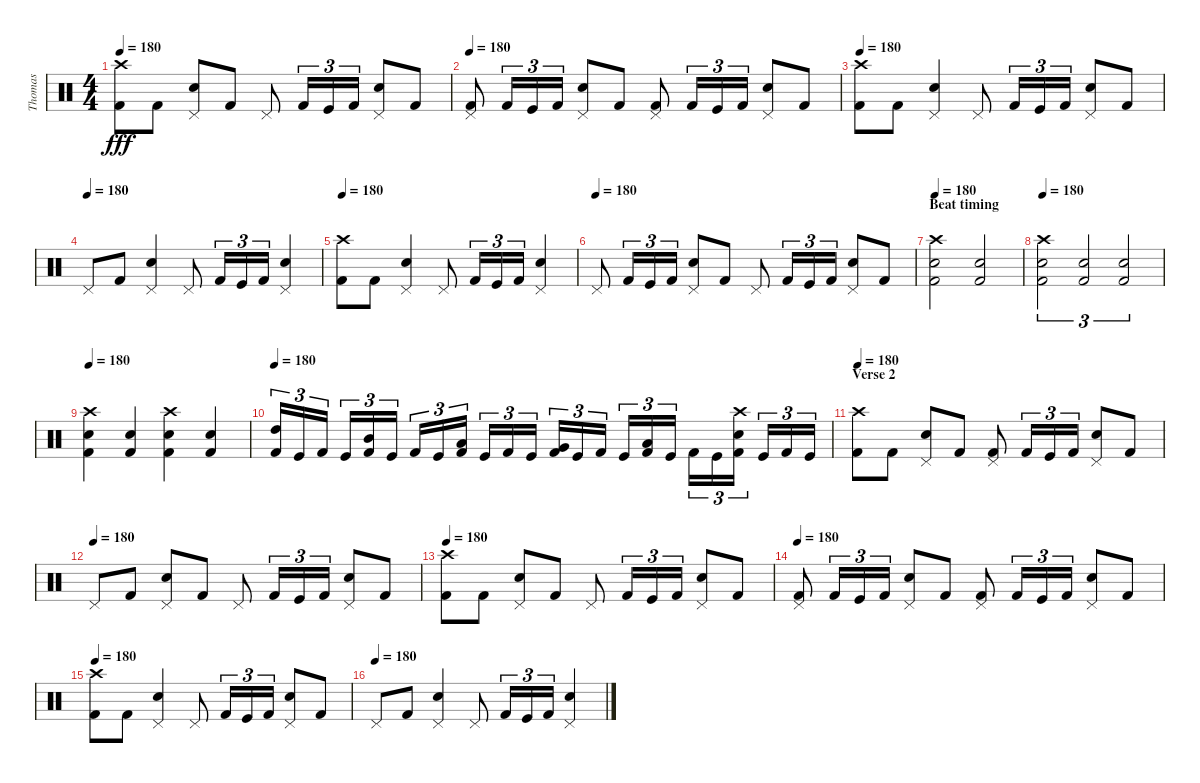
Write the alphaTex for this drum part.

\track ("Thomas" "Thomas") {instrument percussion}
\staff {score}
\articulation defaults
\ts (4 4)
\tempo 180
\clef neutral
\ks c
("Crash high (hit)" "Kick (hit) 2").8{dy fff} "Kick (hit) 2".8 ("Pedal Hi-Hat (hit)" "Snare (hit) 2").8 "Kick (hit) 2".8 "Pedal Hi-Hat (hit)".8 "Kick (hit) 2".16{tu (3 2)} "Kick (hit)".16{tu (3 2)} "Kick (hit) 2".16{tu (3 2)} ("Pedal Hi-Hat (hit)" "Snare (hit) 2").8 "Kick (hit) 2".8 |
\tempo 180
("Pedal Hi-Hat (hit)" "Kick (hit) 2").8 "Kick (hit) 2".16{tu (3 2)} "Kick (hit)".16{tu (3 2)} "Kick (hit) 2".16{tu (3 2)} ("Pedal Hi-Hat (hit)" "Snare (hit) 2").8 "Kick (hit) 2".8 ("Pedal Hi-Hat (hit)" "Kick (hit) 2").8 "Kick (hit) 2".16{tu (3 2)} "Kick (hit)".16{tu (3 2)} "Kick (hit) 2".16{tu (3 2)} ("Pedal Hi-Hat (hit)" "Snare (hit) 2").8 "Kick (hit) 2".8 |
\tempo 180
("Crash high (hit)" "Kick (hit) 2").8 "Kick (hit) 2".8 ("Pedal Hi-Hat (hit)" "Snare (hit) 2").4 "Pedal Hi-Hat (hit)".8 "Kick (hit) 2".16{tu (3 2)} "Kick (hit)".16{tu (3 2)} "Kick (hit) 2".16{tu (3 2)} ("Pedal Hi-Hat (hit)" "Snare (hit) 2").8 "Kick (hit) 2".8 |
\tempo (180)
"Pedal Hi-Hat (hit)".8 "Kick (hit) 2".8 ("Pedal Hi-Hat (hit)" "Snare (hit) 2").4 "Pedal Hi-Hat (hit)".8 "Kick (hit) 2".16{tu (3 2)} "Kick (hit)".16{tu (3 2)} "Kick (hit) 2".16{tu (3 2)} ("Pedal Hi-Hat (hit)" "Snare (hit) 2").4 |
\tempo 180
("Crash high (hit)" "Kick (hit) 2").8 "Kick (hit) 2".8 ("Pedal Hi-Hat (hit)" "Snare (hit) 2").4 "Pedal Hi-Hat (hit)".8 "Kick (hit) 2".16{tu (3 2)} "Kick (hit)".16{tu (3 2)} "Kick (hit) 2".16{tu (3 2)} ("Pedal Hi-Hat (hit)" "Snare (hit) 2").4 |
\tempo (180)
"Pedal Hi-Hat (hit)".8 "Kick (hit) 2".16{tu (3 2)} "Kick (hit)".16{tu (3 2)} "Kick (hit) 2".16{tu (3 2)} ("Pedal Hi-Hat (hit)" "Snare (hit) 2").8 "Kick (hit) 2".8 "Pedal Hi-Hat (hit)".8 "Kick (hit) 2".16{tu (3 2)} "Kick (hit)".16{tu (3 2)} "Kick (hit) 2".16{tu (3 2)} ("Pedal Hi-Hat (hit)" "Snare (hit) 2").8 "Kick (hit) 2".8 |
\section ("" "Beat timing")
\tempo 180
("Crash high (hit)" "Snare (hit) 2" "Kick (hit) 2").2 ("Snare (hit) 2" "Kick (hit) 2").2 |
\tempo 180
("Crash high (hit)" "Snare (hit) 2" "Kick (hit) 2").2{tu (3 2)} ("Snare (hit) 2" "Kick (hit) 2").2{tu (3 2)} ("Snare (hit) 2" "Kick (hit) 2").2{tu (3 2)} |
\tempo 180
("Crash high (hit)" "Snare (hit) 2" "Kick (hit) 2").4 ("Snare (hit) 2" "Kick (hit) 2").4 ("Crash high (hit)" "Snare (hit) 2" "Kick (hit) 2").4 ("Snare (hit) 2" "Kick (hit) 2").4 |
\tempo 180
("High Tom (hit)" "Kick (hit) 2").16{tu (3 2)} "Kick (hit)".16{tu (3 2)} "Kick (hit) 2".16{tu (3 2)} "Kick (hit)".16{tu (3 2)} ("Mid Tom (hit)" "Kick (hit) 2").16{tu (3 2)} "Kick (hit)".16{tu (3 2)} "Kick (hit) 2".16{tu (3 2)} "Kick (hit)".16{tu (3 2)} ("Low Tom (hit)" "Kick (hit) 2").16{tu (3 2)} "Kick (hit)".16{tu (3 2)} "Kick (hit) 2".16{tu (3 2)} "Kick (hit)".16{tu (3 2)} ("Very Low Tom (hit)" "Kick (hit) 2").16{tu (3 2)} "Kick (hit)".16{tu (3 2)} "Kick (hit) 2".16{tu (3 2)} "Kick (hit)".16{tu (3 2)} ("Low Floor Tom (hit)" "Kick (hit) 2").16{tu (3 2)} "Kick (hit)".16{tu (3 2)} "Kick (hit) 2".16{tu (3 2)} "Kick (hit)".16{tu (3 2)} ("Crash high (hit)" "Snare (hit) 2" "Kick (hit) 2").16{tu (3 2)} "Kick (hit)".16{tu (3 2)} "Kick (hit) 2".16{tu (3 2)} "Kick (hit)".16{tu (3 2)} |
\section ("" "Verse 2")
\tempo 180
("Crash high (hit)" "Kick (hit) 2").8 "Kick (hit) 2".8 ("Pedal Hi-Hat (hit)" "Snare (hit) 2").8 "Kick (hit) 2".8 ("Pedal Hi-Hat (hit)" "Kick (hit) 2").8 "Kick (hit) 2".16{tu (3 2)} "Kick (hit)".16{tu (3 2)} "Kick (hit) 2".16{tu (3 2)} ("Pedal Hi-Hat (hit)" "Snare (hit) 2").8 "Kick (hit) 2".8 |
\tempo (180)
"Pedal Hi-Hat (hit)".8 "Kick (hit) 2".8 ("Pedal Hi-Hat (hit)" "Snare (hit) 2").8 "Kick (hit) 2".8 "Pedal Hi-Hat (hit)".8 "Kick (hit) 2".16{tu (3 2)} "Kick (hit)".16{tu (3 2)} "Kick (hit) 2".16{tu (3 2)} ("Pedal Hi-Hat (hit)" "Snare (hit) 2").8 "Kick (hit) 2".8 |
\tempo 180
("Crash high (hit)" "Kick (hit) 2").8 "Kick (hit) 2".8 ("Pedal Hi-Hat (hit)" "Snare (hit) 2").8 "Kick (hit) 2".8 "Pedal Hi-Hat (hit)".8 "Kick (hit) 2".16{tu (3 2)} "Kick (hit)".16{tu (3 2)} "Kick (hit) 2".16{tu (3 2)} ("Pedal Hi-Hat (hit)" "Snare (hit) 2").8 "Kick (hit) 2".8 |
\tempo 180
("Pedal Hi-Hat (hit)" "Kick (hit) 2").8 "Kick (hit) 2".16{tu (3 2)} "Kick (hit)".16{tu (3 2)} "Kick (hit) 2".16{tu (3 2)} ("Pedal Hi-Hat (hit)" "Snare (hit) 2").8 "Kick (hit) 2".8 ("Pedal Hi-Hat (hit)" "Kick (hit) 2").8 "Kick (hit) 2".16{tu (3 2)} "Kick (hit)".16{tu (3 2)} "Kick (hit) 2".16{tu (3 2)} ("Pedal Hi-Hat (hit)" "Snare (hit) 2").8 "Kick (hit) 2".8 |
\tempo 180
("Crash high (hit)" "Kick (hit) 2").8 "Kick (hit) 2".8 ("Pedal Hi-Hat (hit)" "Snare (hit) 2").4 "Pedal Hi-Hat (hit)".8 "Kick (hit) 2".16{tu (3 2)} "Kick (hit)".16{tu (3 2)} "Kick (hit) 2".16{tu (3 2)} ("Pedal Hi-Hat (hit)" "Snare (hit) 2").8 "Kick (hit) 2".8 |
\tempo (180)
"Pedal Hi-Hat (hit)".8 "Kick (hit) 2".8 ("Pedal Hi-Hat (hit)" "Snare (hit) 2").4 "Pedal Hi-Hat (hit)".8 "Kick (hit) 2".16{tu (3 2)} "Kick (hit)".16{tu (3 2)} "Kick (hit) 2".16{tu (3 2)} ("Pedal Hi-Hat (hit)" "Snare (hit) 2").4
